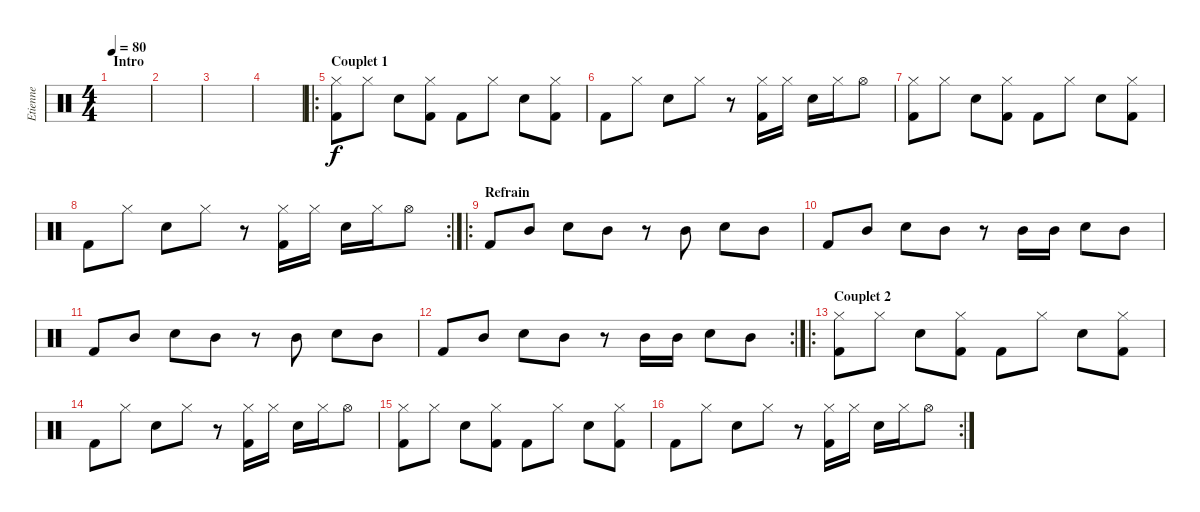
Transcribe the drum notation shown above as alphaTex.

\track ("Etienne" "Etienne") {instrument percussion}
\staff {score}
\articulation defaults
\ts (4 4)
\section ("" "Intro")
\tempo 80
\clef neutral
\ks c
|
|
|
|
\ro
\section ("" "Couplet 1")
("Hi-Hat (closed)" "Kick (hit) 2").8 "Hi-Hat (closed)".8 "Snare (hit) 2".8 ("Hi-Hat (closed)" "Kick (hit) 2").8 "Kick (hit) 2".8 "Hi-Hat (closed)".8 "Snare (hit) 2".8 ("Hi-Hat (closed)" "Kick (hit) 2").8 |
"Kick (hit) 2".8 "Hi-Hat (closed)".8 "Snare (hit) 2".8 "Hi-Hat (closed)".8 r.8 ("Hi-Hat (closed)" "Kick (hit) 2").16 "Hi-Hat (closed)".16 "Snare (hit) 2".16 "Hi-Hat (closed)".16 "Hi-Hat (open)".8 |
("Hi-Hat (closed)" "Kick (hit) 2").8 "Hi-Hat (closed)".8 "Snare (hit) 2".8 ("Hi-Hat (closed)" "Kick (hit) 2").8 "Kick (hit) 2".8 "Hi-Hat (closed)".8 "Snare (hit) 2".8 ("Hi-Hat (closed)" "Kick (hit) 2").8 |
\rc 2 "Kick (hit) 2".8 "Hi-Hat (closed)".8 "Snare (hit) 2".8 "Hi-Hat (closed)".8
r.8 ("Hi-Hat (closed)" "Kick (hit) 2").16 "Hi-Hat (closed)".16 "Snare (hit) 2".16 "Hi-Hat (closed)".16 "Hi-Hat (open)".8 |
\ro
\section ("" "Refrain")
"Kick (hit) 2".8 "Mid Tom (hit)".8 "Snare (hit) 2".8 "Mid Tom (hit)".8 r.8 "Mid Tom (hit)".8 "Snare (hit) 2".8 "Mid Tom (hit)".8 |
"Kick (hit) 2".8 "Mid Tom (hit)".8 "Snare (hit) 2".8 "Mid Tom (hit)".8 r.8 "Mid Tom (hit)".16 "Mid Tom (hit)".16 "Snare (hit) 2".8 "Mid Tom (hit)".8 |
"Kick (hit) 2".8 "Mid Tom (hit)".8 "Snare (hit) 2".8 "Mid Tom (hit)".8 r.8 "Mid Tom (hit)".8 "Snare (hit) 2".8 "Mid Tom (hit)".8 |
\rc 2 "Kick (hit) 2".8 "Mid Tom (hit)".8 "Snare (hit) 2".8 "Mid Tom (hit)".8
r.8 "Mid Tom (hit)".16 "Mid Tom (hit)".16 "Snare (hit) 2".8 "Mid Tom (hit)".8 |
\ro
\section ("" "Couplet 2")
("Hi-Hat (closed)" "Kick (hit) 2").8 "Hi-Hat (closed)".8 "Snare (hit) 2".8 ("Hi-Hat (closed)" "Kick (hit) 2").8 "Kick (hit) 2".8 "Hi-Hat (closed)".8 "Snare (hit) 2".8 ("Hi-Hat (closed)" "Kick (hit) 2").8 |
"Kick (hit) 2".8 "Hi-Hat (closed)".8 "Snare (hit) 2".8 "Hi-Hat (closed)".8 r.8 ("Hi-Hat (closed)" "Kick (hit) 2").16 "Hi-Hat (closed)".16 "Snare (hit) 2".16 "Hi-Hat (closed)".16 "Hi-Hat (open)".8 |
("Hi-Hat (closed)" "Kick (hit) 2").8 "Hi-Hat (closed)".8 "Snare (hit) 2".8 ("Hi-Hat (closed)" "Kick (hit) 2").8 "Kick (hit) 2".8 "Hi-Hat (closed)".8 "Snare (hit) 2".8 ("Hi-Hat (closed)" "Kick (hit) 2").8 |
\rc 2 "Kick (hit) 2".8 "Hi-Hat (closed)".8 "Snare (hit) 2".8 "Hi-Hat (closed)".8
r.8 ("Hi-Hat (closed)" "Kick (hit) 2").16 "Hi-Hat (closed)".16 "Snare (hit) 2".16 "Hi-Hat (closed)".16 "Hi-Hat (open)".8
